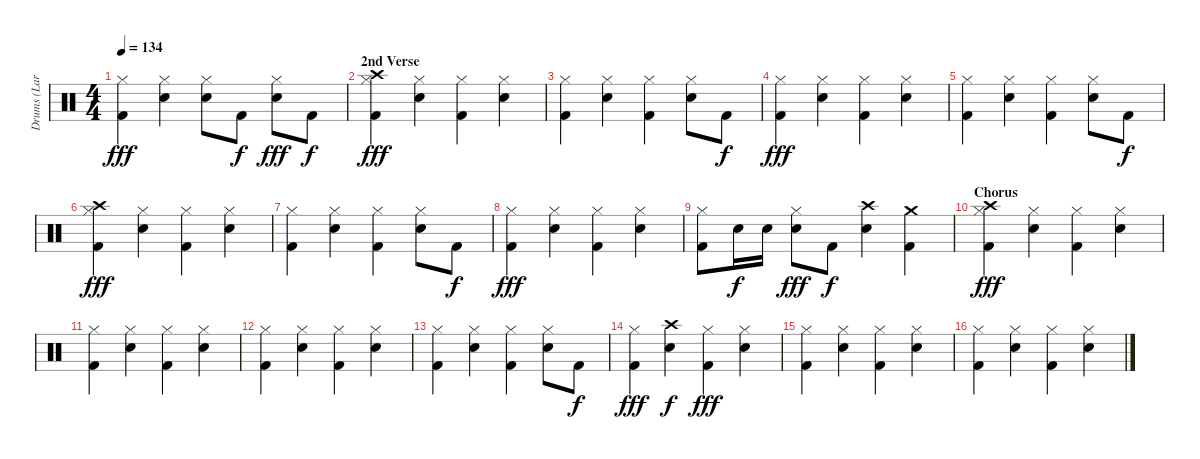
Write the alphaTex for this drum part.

\track ("Drums (Lars)" "Drums (Lar") {instrument percussion}
\staff {score}
\articulation defaults
\ts (4 4)
\tempo 134
\clef neutral
\ks c
("Hi-Hat (closed)" "Kick (hit) 2").4{dy fff} ("Hi-Hat (closed)" "Snare (hit) 2").4 ("Hi-Hat (closed)" "Snare (hit) 2").8 "Kick (hit) 2".8{dy f} ("Hi-Hat (closed)" "Snare (hit) 2").8{dy fff} "Kick (hit) 2".8{dy f} |
\section ("" "2nd Verse")
("Crash high (hit)" "Hi-Hat (closed)" "Kick (hit) 2").4{dy fff} ("Hi-Hat (closed)" "Snare (hit) 2").4 ("Hi-Hat (closed)" "Kick (hit) 2").4 ("Hi-Hat (closed)" "Snare (hit) 2").4 |
("Hi-Hat (closed)" "Kick (hit) 2").4 ("Hi-Hat (closed)" "Snare (hit) 2").4 ("Hi-Hat (closed)" "Kick (hit) 2").4 ("Hi-Hat (closed)" "Snare (hit) 2").8 "Kick (hit) 2".8{dy f} |
("Hi-Hat (closed)" "Kick (hit) 2").4{dy fff} ("Hi-Hat (closed)" "Snare (hit) 2").4 ("Hi-Hat (closed)" "Kick (hit) 2").4 ("Hi-Hat (closed)" "Snare (hit) 2").4 |
("Hi-Hat (closed)" "Kick (hit) 2").4 ("Hi-Hat (closed)" "Snare (hit) 2").4 ("Hi-Hat (closed)" "Kick (hit) 2").4 ("Hi-Hat (closed)" "Snare (hit) 2").8 "Kick (hit) 2".8{dy f} |
("Crash high (hit)" "Hi-Hat (closed)" "Kick (hit) 2").4{dy fff} ("Hi-Hat (closed)" "Snare (hit) 2").4 ("Hi-Hat (closed)" "Kick (hit) 2").4 ("Hi-Hat (closed)" "Snare (hit) 2").4 |
("Hi-Hat (closed)" "Kick (hit) 2").4 ("Hi-Hat (closed)" "Snare (hit) 2").4 ("Hi-Hat (closed)" "Kick (hit) 2").4 ("Hi-Hat (closed)" "Snare (hit) 2").8 "Kick (hit) 2".8{dy f} |
("Hi-Hat (closed)" "Kick (hit) 2").4{dy fff} ("Hi-Hat (closed)" "Snare (hit) 2").4 ("Hi-Hat (closed)" "Kick (hit) 2").4 ("Hi-Hat (closed)" "Snare (hit) 2").4 |
("Hi-Hat (closed)" "Kick (hit) 2").8 "Snare (hit) 2".16{dy f} "Snare (hit) 2".16 ("Hi-Hat (closed)" "Snare (hit) 2").8{dy fff} "Kick (hit) 2".8{dy f} ("Crash high (hit)" "Snare (hit) 2").4 ("Crash medium (hit)" "Kick (hit) 2").4 |
\section ("" "Chorus")
("Crash high (hit)" "Hi-Hat (closed)" "Kick (hit) 2").4{dy fff} ("Hi-Hat (closed)" "Snare (hit) 2").4 ("Hi-Hat (closed)" "Kick (hit) 2").4 ("Hi-Hat (closed)" "Snare (hit) 2").4 |
("Hi-Hat (closed)" "Kick (hit) 2").4 ("Hi-Hat (closed)" "Snare (hit) 2").4 ("Hi-Hat (closed)" "Kick (hit) 2").4 ("Hi-Hat (closed)" "Snare (hit) 2").4 |
("Hi-Hat (closed)" "Kick (hit) 2").4 ("Hi-Hat (closed)" "Snare (hit) 2").4 ("Hi-Hat (closed)" "Kick (hit) 2").4 ("Hi-Hat (closed)" "Snare (hit) 2").4 |
("Hi-Hat (closed)" "Kick (hit) 2").4 ("Hi-Hat (closed)" "Snare (hit) 2").4 ("Hi-Hat (closed)" "Kick (hit) 2").4 ("Hi-Hat (closed)" "Snare (hit) 2").8 "Kick (hit) 2".8{dy f} |
("Hi-Hat (closed)" "Kick (hit) 2").4{dy fff} ("Crash high (hit)" "Snare (hit) 2").4{dy f} ("Hi-Hat (closed)" "Kick (hit) 2").4{dy fff} ("Hi-Hat (closed)" "Snare (hit) 2").4 |
("Hi-Hat (closed)" "Kick (hit) 2").4 ("Hi-Hat (closed)" "Snare (hit) 2").4 ("Hi-Hat (closed)" "Kick (hit) 2").4 ("Hi-Hat (closed)" "Snare (hit) 2").4 |
("Hi-Hat (closed)" "Kick (hit) 2").4 ("Hi-Hat (closed)" "Snare (hit) 2").4 ("Hi-Hat (closed)" "Kick (hit) 2").4 ("Hi-Hat (closed)" "Snare (hit) 2").4
